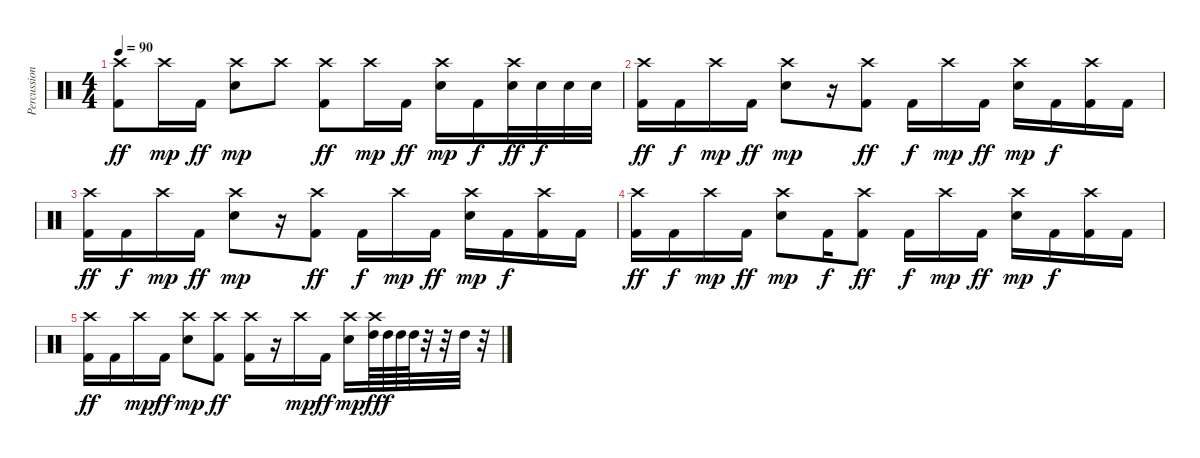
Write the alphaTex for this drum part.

\track ("Percussion" "Percussion") {instrument percussion}
\staff {score}
\articulation defaults
\ts (4 4)
\tempo 90
\clef neutral
\ks c
("Crash high (hit)" "Kick (hit) 2").8{dy ff} "Crash high (hit)".16{dy mp} "Kick (hit) 2".16{dy ff} ("Crash high (hit)" "Electric Snare (hit)").8{dy mp} "Crash high (hit)".8 ("Crash high (hit)" "Kick (hit) 2").8{dy ff} "Crash high (hit)".16{dy mp} "Kick (hit) 2".16{dy ff} ("Crash high (hit)" "Electric Snare (hit)").16{dy mp} "Kick (hit) 2".16{dy f} ("Crash high (hit)" "Electric Snare (hit)").32{dy ff} "Electric Snare (hit)".32{dy f} "Electric Snare (hit)".32 "Electric Snare (hit)".32 |
("Crash high (hit)" "Kick (hit) 2").16{dy ff} "Kick (hit) 2".16{dy f} "Crash high (hit)".16{dy mp} "Kick (hit) 2".16{dy ff} ("Crash high (hit)" "Electric Snare (hit)").8{dy mp} r.16 ("Crash high (hit)" "Kick (hit) 2").8{dy ff} "Kick (hit) 2".16{dy f} "Crash high (hit)".16{dy mp} "Kick (hit) 2".16{dy ff} ("Crash high (hit)" "Electric Snare (hit)").16{dy mp} "Kick (hit) 2".16{dy f} ("Crash high (hit)" "Kick (hit) 2").16 "Kick (hit) 2".16 |
("Crash high (hit)" "Kick (hit) 2").16{dy ff} "Kick (hit) 2".16{dy f} "Crash high (hit)".16{dy mp} "Kick (hit) 2".16{dy ff} ("Crash high (hit)" "Electric Snare (hit)").8{dy mp} r.16 ("Crash high (hit)" "Kick (hit) 2").8{dy ff} "Kick (hit) 2".16{dy f} "Crash high (hit)".16{dy mp} "Kick (hit) 2".16{dy ff} ("Crash high (hit)" "Electric Snare (hit)").16{dy mp} "Kick (hit) 2".16{dy f} ("Crash high (hit)" "Kick (hit) 2").16 "Kick (hit) 2".16 |
("Crash high (hit)" "Kick (hit) 2").16{dy ff} "Kick (hit) 2".16{dy f} "Crash high (hit)".16{dy mp} "Kick (hit) 2".16{dy ff} ("Crash high (hit)" "Electric Snare (hit)").8{dy mp} "Kick (hit) 2".16{dy f} ("Crash high (hit)" "Kick (hit) 2").8{dy ff} "Kick (hit) 2".16{dy f} "Crash high (hit)".16{dy mp} "Kick (hit) 2".16{dy ff} ("Crash high (hit)" "Electric Snare (hit)").16{dy mp} "Kick (hit) 2".16{dy f} ("Crash high (hit)" "Kick (hit) 2").16 "Kick (hit) 2".16 |
("Crash high (hit)" "Kick (hit) 2").16{dy ff} "Kick (hit) 2".16 "Crash high (hit)".16{dy mp} "Kick (hit) 2".16{dy ff} ("Crash high (hit)" "Electric Snare (hit)").8{dy mp} ("Crash high (hit)" "Kick (hit) 2").8{dy ff} ("Crash high (hit)" "Kick (hit) 2").16 r.16 "Crash high (hit)".16{dy mp} "Kick (hit) 2".16{dy ff} ("Crash high (hit)" "Electric Snare (hit)").16{dy mp} ("Crash high (hit)" "High Tom (hit)").64{dy ff} "High Tom (hit)".64{dy f} "High Tom (hit)".64 "High Tom (hit)".64 r.32 r.32 "High Tom (hit)".32 r.32
